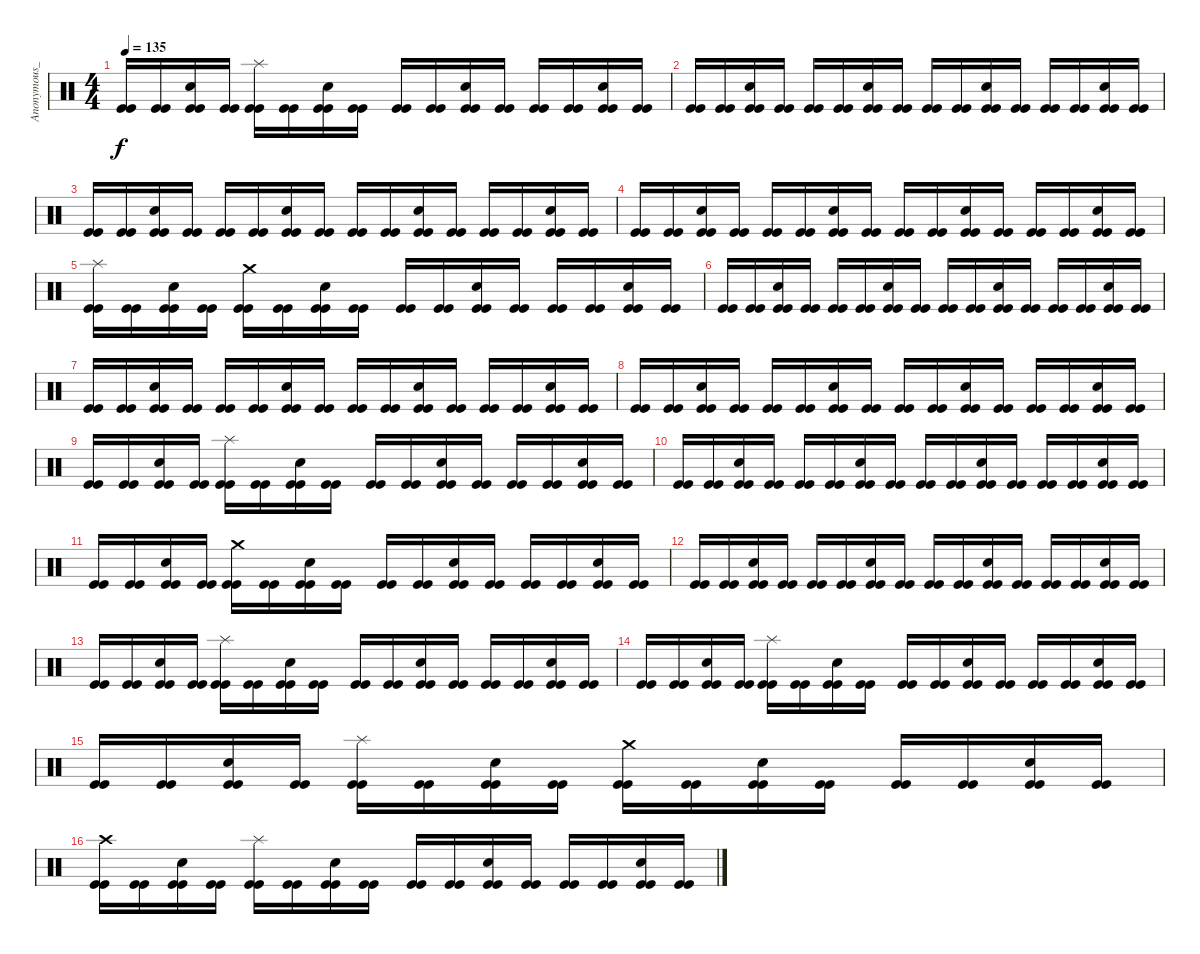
\track ("Anonymous_Drums" "Anonymous_") {instrument percussion}
\staff {score}
\articulation defaults
\ts (4 4)
\tempo 135
\clef neutral
\ks c
("Kick (hit)" "Kick (hit)").16{dy f} ("Kick (hit)" "Kick (hit)").16 ("Snare (hit) 2" "Kick (hit)" "Kick (hit)").16 ("Kick (hit)" "Kick (hit)").16 ("Splash (hit)" "Kick (hit)" "Kick (hit)").16 ("Kick (hit)" "Kick (hit)").16 ("Snare (hit) 2" "Kick (hit)" "Kick (hit)").16 ("Kick (hit)" "Kick (hit)").16 ("Kick (hit)" "Kick (hit)").16 ("Kick (hit)" "Kick (hit)").16 ("Snare (hit) 2" "Kick (hit)" "Kick (hit)").16 ("Kick (hit)" "Kick (hit)").16 ("Kick (hit)" "Kick (hit)").16 ("Kick (hit)" "Kick (hit)").16 ("Snare (hit) 2" "Kick (hit)" "Kick (hit)").16 ("Kick (hit)" "Kick (hit)").16 |
("Kick (hit)" "Kick (hit)").16 ("Kick (hit)" "Kick (hit)").16 ("Snare (hit) 2" "Kick (hit)" "Kick (hit)").16 ("Kick (hit)" "Kick (hit)").16 ("Kick (hit)" "Kick (hit)").16 ("Kick (hit)" "Kick (hit)").16 ("Snare (hit) 2" "Kick (hit)" "Kick (hit)").16 ("Kick (hit)" "Kick (hit)").16 ("Kick (hit)" "Kick (hit)").16 ("Kick (hit)" "Kick (hit)").16 ("Snare (hit) 2" "Kick (hit)" "Kick (hit)").16 ("Kick (hit)" "Kick (hit)").16 ("Kick (hit)" "Kick (hit)").16 ("Kick (hit)" "Kick (hit)").16 ("Snare (hit) 2" "Kick (hit)" "Kick (hit)").16 ("Kick (hit)" "Kick (hit)").16 |
("Kick (hit)" "Kick (hit)").16 ("Kick (hit)" "Kick (hit)").16 ("Snare (hit) 2" "Kick (hit)" "Kick (hit)").16 ("Kick (hit)" "Kick (hit)").16 ("Kick (hit)" "Kick (hit)").16 ("Kick (hit)" "Kick (hit)").16 ("Snare (hit) 2" "Kick (hit)" "Kick (hit)").16 ("Kick (hit)" "Kick (hit)").16 ("Kick (hit)" "Kick (hit)").16 ("Kick (hit)" "Kick (hit)").16 ("Snare (hit) 2" "Kick (hit)" "Kick (hit)").16 ("Kick (hit)" "Kick (hit)").16 ("Kick (hit)" "Kick (hit)").16 ("Kick (hit)" "Kick (hit)").16 ("Snare (hit) 2" "Kick (hit)" "Kick (hit)").16 ("Kick (hit)" "Kick (hit)").16 |
("Kick (hit)" "Kick (hit)").16 ("Kick (hit)" "Kick (hit)").16 ("Snare (hit) 2" "Kick (hit)" "Kick (hit)").16 ("Kick (hit)" "Kick (hit)").16 ("Kick (hit)" "Kick (hit)").16 ("Kick (hit)" "Kick (hit)").16 ("Snare (hit) 2" "Kick (hit)" "Kick (hit)").16 ("Kick (hit)" "Kick (hit)").16 ("Kick (hit)" "Kick (hit)").16 ("Kick (hit)" "Kick (hit)").16 ("Snare (hit) 2" "Kick (hit)" "Kick (hit)").16 ("Kick (hit)" "Kick (hit)").16 ("Kick (hit)" "Kick (hit)").16 ("Kick (hit)" "Kick (hit)").16 ("Snare (hit) 2" "Kick (hit)" "Kick (hit)").16 ("Kick (hit)" "Kick (hit)").16 |
("Splash (hit)" "Kick (hit)" "Kick (hit)").16 ("Kick (hit)" "Kick (hit)").16 ("Snare (hit) 2" "Kick (hit)" "Kick (hit)").16 ("Kick (hit)" "Kick (hit)").16 ("Crash medium (hit)" "Kick (hit)" "Kick (hit)").16 ("Kick (hit)" "Kick (hit)").16 ("Snare (hit) 2" "Kick (hit)" "Kick (hit)").16 ("Kick (hit)" "Kick (hit)").16 ("Kick (hit)" "Kick (hit)").16 ("Kick (hit)" "Kick (hit)").16 ("Snare (hit) 2" "Kick (hit)" "Kick (hit)").16 ("Kick (hit)" "Kick (hit)").16 ("Kick (hit)" "Kick (hit)").16 ("Kick (hit)" "Kick (hit)").16 ("Snare (hit) 2" "Kick (hit)" "Kick (hit)").16 ("Kick (hit)" "Kick (hit)").16 |
("Kick (hit)" "Kick (hit)").16 ("Kick (hit)" "Kick (hit)").16 ("Snare (hit) 2" "Kick (hit)" "Kick (hit)").16 ("Kick (hit)" "Kick (hit)").16 ("Kick (hit)" "Kick (hit)").16 ("Kick (hit)" "Kick (hit)").16 ("Snare (hit) 2" "Kick (hit)" "Kick (hit)").16 ("Kick (hit)" "Kick (hit)").16 ("Kick (hit)" "Kick (hit)").16 ("Kick (hit)" "Kick (hit)").16 ("Snare (hit) 2" "Kick (hit)" "Kick (hit)").16 ("Kick (hit)" "Kick (hit)").16 ("Kick (hit)" "Kick (hit)").16 ("Kick (hit)" "Kick (hit)").16 ("Snare (hit) 2" "Kick (hit)" "Kick (hit)").16 ("Kick (hit)" "Kick (hit)").16 |
("Kick (hit)" "Kick (hit)").16 ("Kick (hit)" "Kick (hit)").16 ("Snare (hit) 2" "Kick (hit)" "Kick (hit)").16 ("Kick (hit)" "Kick (hit)").16 ("Kick (hit)" "Kick (hit)").16 ("Kick (hit)" "Kick (hit)").16 ("Snare (hit) 2" "Kick (hit)" "Kick (hit)").16 ("Kick (hit)" "Kick (hit)").16 ("Kick (hit)" "Kick (hit)").16 ("Kick (hit)" "Kick (hit)").16 ("Snare (hit) 2" "Kick (hit)" "Kick (hit)").16 ("Kick (hit)" "Kick (hit)").16 ("Kick (hit)" "Kick (hit)").16 ("Kick (hit)" "Kick (hit)").16 ("Snare (hit) 2" "Kick (hit)" "Kick (hit)").16 ("Kick (hit)" "Kick (hit)").16 |
("Kick (hit)" "Kick (hit)").16 ("Kick (hit)" "Kick (hit)").16 ("Snare (hit) 2" "Kick (hit)" "Kick (hit)").16 ("Kick (hit)" "Kick (hit)").16 ("Kick (hit)" "Kick (hit)").16 ("Kick (hit)" "Kick (hit)").16 ("Snare (hit) 2" "Kick (hit)" "Kick (hit)").16 ("Kick (hit)" "Kick (hit)").16 ("Kick (hit)" "Kick (hit)").16 ("Kick (hit)" "Kick (hit)").16 ("Snare (hit) 2" "Kick (hit)" "Kick (hit)").16 ("Kick (hit)" "Kick (hit)").16 ("Kick (hit)" "Kick (hit)").16 ("Kick (hit)" "Kick (hit)").16 ("Snare (hit) 2" "Kick (hit)" "Kick (hit)").16 ("Kick (hit)" "Kick (hit)").16 |
("Kick (hit)" "Kick (hit)").16 ("Kick (hit)" "Kick (hit)").16 ("Snare (hit) 2" "Kick (hit)" "Kick (hit)").16 ("Kick (hit)" "Kick (hit)").16 ("Splash (hit)" "Kick (hit)" "Kick (hit)").16 ("Kick (hit)" "Kick (hit)").16 ("Snare (hit) 2" "Kick (hit)" "Kick (hit)").16 ("Kick (hit)" "Kick (hit)").16 ("Kick (hit)" "Kick (hit)").16 ("Kick (hit)" "Kick (hit)").16 ("Snare (hit) 2" "Kick (hit)" "Kick (hit)").16 ("Kick (hit)" "Kick (hit)").16 ("Kick (hit)" "Kick (hit)").16 ("Kick (hit)" "Kick (hit)").16 ("Snare (hit) 2" "Kick (hit)" "Kick (hit)").16 ("Kick (hit)" "Kick (hit)").16 |
("Kick (hit)" "Kick (hit)").16 ("Kick (hit)" "Kick (hit)").16 ("Snare (hit) 2" "Kick (hit)" "Kick (hit)").16 ("Kick (hit)" "Kick (hit)").16 ("Kick (hit)" "Kick (hit)").16 ("Kick (hit)" "Kick (hit)").16 ("Snare (hit) 2" "Kick (hit)" "Kick (hit)").16 ("Kick (hit)" "Kick (hit)").16 ("Kick (hit)" "Kick (hit)").16 ("Kick (hit)" "Kick (hit)").16 ("Snare (hit) 2" "Kick (hit)" "Kick (hit)").16 ("Kick (hit)" "Kick (hit)").16 ("Kick (hit)" "Kick (hit)").16 ("Kick (hit)" "Kick (hit)").16 ("Snare (hit) 2" "Kick (hit)" "Kick (hit)").16 ("Kick (hit)" "Kick (hit)").16 |
("Kick (hit)" "Kick (hit)").16 ("Kick (hit)" "Kick (hit)").16 ("Snare (hit) 2" "Kick (hit)" "Kick (hit)").16 ("Kick (hit)" "Kick (hit)").16 ("Crash medium (hit)" "Kick (hit)" "Kick (hit)").16 ("Kick (hit)" "Kick (hit)").16 ("Snare (hit) 2" "Kick (hit)" "Kick (hit)").16 ("Kick (hit)" "Kick (hit)").16 ("Kick (hit)" "Kick (hit)").16 ("Kick (hit)" "Kick (hit)").16 ("Snare (hit) 2" "Kick (hit)" "Kick (hit)").16 ("Kick (hit)" "Kick (hit)").16 ("Kick (hit)" "Kick (hit)").16 ("Kick (hit)" "Kick (hit)").16 ("Snare (hit) 2" "Kick (hit)" "Kick (hit)").16 ("Kick (hit)" "Kick (hit)").16 |
("Kick (hit)" "Kick (hit)").16 ("Kick (hit)" "Kick (hit)").16 ("Snare (hit) 2" "Kick (hit)" "Kick (hit)").16 ("Kick (hit)" "Kick (hit)").16 ("Kick (hit)" "Kick (hit)").16 ("Kick (hit)" "Kick (hit)").16 ("Snare (hit) 2" "Kick (hit)" "Kick (hit)").16 ("Kick (hit)" "Kick (hit)").16 ("Kick (hit)" "Kick (hit)").16 ("Kick (hit)" "Kick (hit)").16 ("Snare (hit) 2" "Kick (hit)" "Kick (hit)").16 ("Kick (hit)" "Kick (hit)").16 ("Kick (hit)" "Kick (hit)").16 ("Kick (hit)" "Kick (hit)").16 ("Snare (hit) 2" "Kick (hit)" "Kick (hit)").16 ("Kick (hit)" "Kick (hit)").16 |
("Kick (hit)" "Kick (hit)").16 ("Kick (hit)" "Kick (hit)").16 ("Snare (hit) 2" "Kick (hit)" "Kick (hit)").16 ("Kick (hit)" "Kick (hit)").16 ("Splash (hit)" "Kick (hit)" "Kick (hit)").16 ("Kick (hit)" "Kick (hit)").16 ("Snare (hit) 2" "Kick (hit)" "Kick (hit)").16 ("Kick (hit)" "Kick (hit)").16 ("Kick (hit)" "Kick (hit)").16 ("Kick (hit)" "Kick (hit)").16 ("Snare (hit) 2" "Kick (hit)" "Kick (hit)").16 ("Kick (hit)" "Kick (hit)").16 ("Kick (hit)" "Kick (hit)").16 ("Kick (hit)" "Kick (hit)").16 ("Snare (hit) 2" "Kick (hit)" "Kick (hit)").16 ("Kick (hit)" "Kick (hit)").16 |
("Kick (hit)" "Kick (hit)").16 ("Kick (hit)" "Kick (hit)").16 ("Snare (hit) 2" "Kick (hit)" "Kick (hit)").16 ("Kick (hit)" "Kick (hit)").16 ("Splash (hit)" "Kick (hit)" "Kick (hit)").16 ("Kick (hit)" "Kick (hit)").16 ("Snare (hit) 2" "Kick (hit)" "Kick (hit)").16 ("Kick (hit)" "Kick (hit)").16 ("Kick (hit)" "Kick (hit)").16 ("Kick (hit)" "Kick (hit)").16 ("Snare (hit) 2" "Kick (hit)" "Kick (hit)").16 ("Kick (hit)" "Kick (hit)").16 ("Kick (hit)" "Kick (hit)").16 ("Kick (hit)" "Kick (hit)").16 ("Snare (hit) 2" "Kick (hit)" "Kick (hit)").16 ("Kick (hit)" "Kick (hit)").16 |
("Kick (hit)" "Kick (hit)").16 ("Kick (hit)" "Kick (hit)").16 ("Snare (hit) 2" "Kick (hit)" "Kick (hit)").16 ("Kick (hit)" "Kick (hit)").16 ("Splash (hit)" "Kick (hit)" "Kick (hit)").16 ("Kick (hit)" "Kick (hit)").16 ("Snare (hit) 2" "Kick (hit)" "Kick (hit)").16 ("Kick (hit)" "Kick (hit)").16 ("Crash medium (hit)" "Kick (hit)" "Kick (hit)").16 ("Kick (hit)" "Kick (hit)").16 ("Snare (hit) 2" "Kick (hit)" "Kick (hit)").16 ("Kick (hit)" "Kick (hit)").16 ("Kick (hit)" "Kick (hit)").16 ("Kick (hit)" "Kick (hit)").16 ("Snare (hit) 2" "Kick (hit)" "Kick (hit)").16 ("Kick (hit)" "Kick (hit)").16 |
("Crash high (hit)" "Kick (hit)" "Kick (hit)").16 ("Kick (hit)" "Kick (hit)").16 ("Snare (hit) 2" "Kick (hit)" "Kick (hit)").16 ("Kick (hit)" "Kick (hit)").16 ("Splash (hit)" "Kick (hit)" "Kick (hit)").16 ("Kick (hit)" "Kick (hit)").16 ("Snare (hit) 2" "Kick (hit)" "Kick (hit)").16 ("Kick (hit)" "Kick (hit)").16 ("Kick (hit)" "Kick (hit)").16 ("Kick (hit)" "Kick (hit)").16 ("Snare (hit) 2" "Kick (hit)" "Kick (hit)").16 ("Kick (hit)" "Kick (hit)").16 ("Kick (hit)" "Kick (hit)").16 ("Kick (hit)" "Kick (hit)").16 ("Snare (hit) 2" "Kick (hit)" "Kick (hit)").16 ("Kick (hit)" "Kick (hit)").16
